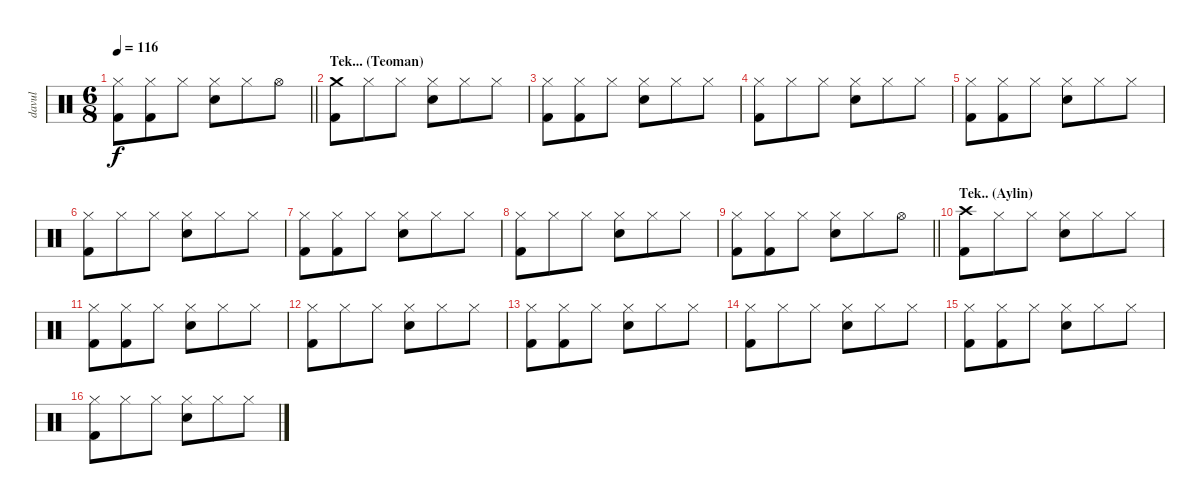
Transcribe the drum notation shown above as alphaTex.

\track ("davul" "davul") {instrument percussion}
\staff {score}
\articulation defaults
\ts (6 8)
\tempo 116
\clef neutral
\barLineRight lightlight
\ks c
("Hi-Hat (closed)" "Kick (hit) 2").8{dy f} ("Hi-Hat (closed)" "Kick (hit) 2").8 "Hi-Hat (closed)".8 ("Hi-Hat (closed)" "Electric Snare (hit)").8 "Hi-Hat (closed)".8 "Hi-Hat (open)".8 |
\section ("" "Tek... (Teoman)")
("Crash medium (hit)" "Kick (hit) 2").8 "Hi-Hat (closed)".8 "Hi-Hat (closed)".8 ("Hi-Hat (closed)" "Electric Snare (hit)").8 "Hi-Hat (closed)".8 "Hi-Hat (closed)".8 |
("Hi-Hat (closed)" "Kick (hit) 2").8 ("Hi-Hat (closed)" "Kick (hit) 2").8 "Hi-Hat (closed)".8 ("Hi-Hat (closed)" "Electric Snare (hit)").8 "Hi-Hat (closed)".8 "Hi-Hat (closed)".8 |
("Hi-Hat (closed)" "Kick (hit) 2").8 "Hi-Hat (closed)".8 "Hi-Hat (closed)".8 ("Hi-Hat (closed)" "Electric Snare (hit)").8 "Hi-Hat (closed)".8 "Hi-Hat (closed)".8 |
("Hi-Hat (closed)" "Kick (hit) 2").8 ("Hi-Hat (closed)" "Kick (hit) 2").8 "Hi-Hat (closed)".8 ("Hi-Hat (closed)" "Electric Snare (hit)").8 "Hi-Hat (closed)".8 "Hi-Hat (closed)".8 |
("Hi-Hat (closed)" "Kick (hit) 2").8 "Hi-Hat (closed)".8 "Hi-Hat (closed)".8 ("Hi-Hat (closed)" "Electric Snare (hit)").8 "Hi-Hat (closed)".8 "Hi-Hat (closed)".8 |
("Hi-Hat (closed)" "Kick (hit) 2").8 ("Hi-Hat (closed)" "Kick (hit) 2").8 "Hi-Hat (closed)".8 ("Hi-Hat (closed)" "Electric Snare (hit)").8 "Hi-Hat (closed)".8 "Hi-Hat (closed)".8 |
("Hi-Hat (closed)" "Kick (hit) 2").8 "Hi-Hat (closed)".8 "Hi-Hat (closed)".8 ("Hi-Hat (closed)" "Electric Snare (hit)").8 "Hi-Hat (closed)".8 "Hi-Hat (closed)".8 |
\barLineRight lightlight
("Hi-Hat (closed)" "Kick (hit) 2").8 ("Hi-Hat (closed)" "Kick (hit) 2").8 "Hi-Hat (closed)".8 ("Hi-Hat (closed)" "Electric Snare (hit)").8 "Hi-Hat (closed)".8 "Hi-Hat (open)".8 |
\section ("" "Tek.. (Aylin)")
("Crash high (hit)" "Kick (hit) 2").8 "Hi-Hat (closed)".8 "Hi-Hat (closed)".8 ("Hi-Hat (closed)" "Electric Snare (hit)").8 "Hi-Hat (closed)".8 "Hi-Hat (closed)".8 |
("Hi-Hat (closed)" "Kick (hit) 2").8 ("Hi-Hat (closed)" "Kick (hit) 2").8 "Hi-Hat (closed)".8 ("Hi-Hat (closed)" "Electric Snare (hit)").8 "Hi-Hat (closed)".8 "Hi-Hat (closed)".8 |
("Hi-Hat (closed)" "Kick (hit) 2").8 "Hi-Hat (closed)".8 "Hi-Hat (closed)".8 ("Hi-Hat (closed)" "Electric Snare (hit)").8 "Hi-Hat (closed)".8 "Hi-Hat (closed)".8 |
("Hi-Hat (closed)" "Kick (hit) 2").8 ("Hi-Hat (closed)" "Kick (hit) 2").8 "Hi-Hat (closed)".8 ("Hi-Hat (closed)" "Electric Snare (hit)").8 "Hi-Hat (closed)".8 "Hi-Hat (closed)".8 |
("Hi-Hat (closed)" "Kick (hit) 2").8 "Hi-Hat (closed)".8 "Hi-Hat (closed)".8 ("Hi-Hat (closed)" "Electric Snare (hit)").8 "Hi-Hat (closed)".8 "Hi-Hat (closed)".8 |
("Hi-Hat (closed)" "Kick (hit) 2").8 ("Hi-Hat (closed)" "Kick (hit) 2").8 "Hi-Hat (closed)".8 ("Hi-Hat (closed)" "Electric Snare (hit)").8 "Hi-Hat (closed)".8 "Hi-Hat (closed)".8 |
("Hi-Hat (closed)" "Kick (hit) 2").8 "Hi-Hat (closed)".8 "Hi-Hat (closed)".8 ("Hi-Hat (closed)" "Electric Snare (hit)").8 "Hi-Hat (closed)".8 "Hi-Hat (closed)".8
